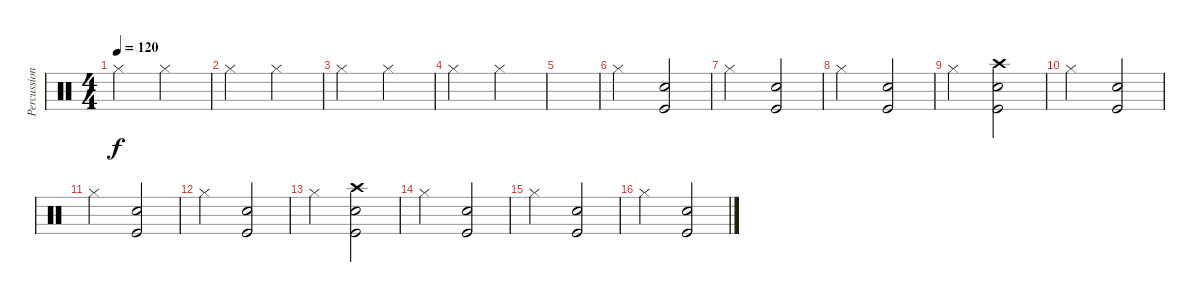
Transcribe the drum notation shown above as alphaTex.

\track ("Percussions" "Percussion") {instrument percussion}
\staff {score}
\articulation defaults
\ts (4 4)
\tempo 120
\clef neutral
\ks c "Hi-Hat (closed)".2{dy f} "Hi-Hat (closed)".2
|
"Hi-Hat (closed)".2 "Hi-Hat (closed)".2 |
"Hi-Hat (closed)".2 "Hi-Hat (closed)".2 |
"Hi-Hat (closed)".2 "Hi-Hat (closed)".2 |
|
"Hi-Hat (closed)".2 ("Kick (hit)" "Electric Snare (hit)").2 |
"Hi-Hat (closed)".2 ("Kick (hit)" "Electric Snare (hit)").2 |
"Hi-Hat (closed)".2 ("Kick (hit)" "Electric Snare (hit)").2 |
"Hi-Hat (closed)".2 ("Kick (hit)" "Electric Snare (hit)" "Crash high (hit)").2 |
"Hi-Hat (closed)".2 ("Kick (hit)" "Electric Snare (hit)").2 |
"Hi-Hat (closed)".2 ("Kick (hit)" "Electric Snare (hit)").2 |
"Hi-Hat (closed)".2 ("Kick (hit)" "Electric Snare (hit)").2 |
"Hi-Hat (closed)".2 ("Kick (hit)" "Electric Snare (hit)" "Crash high (hit)").2 |
"Hi-Hat (closed)".2 ("Kick (hit)" "Electric Snare (hit)").2 |
"Hi-Hat (closed)".2 ("Kick (hit)" "Electric Snare (hit)").2 |
"Hi-Hat (closed)".2 ("Kick (hit)" "Electric Snare (hit)").2
